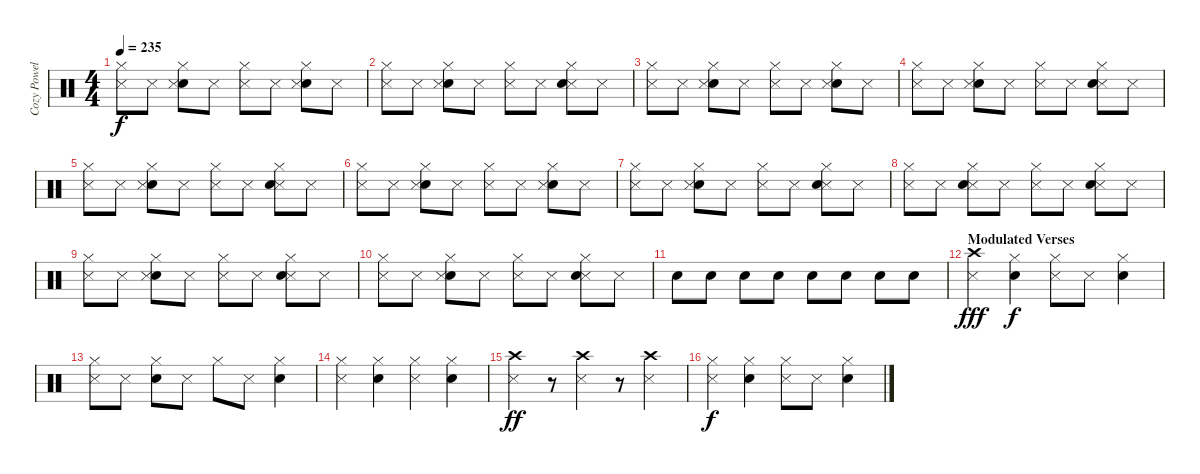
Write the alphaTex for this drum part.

\track ("Cozy Powell" "Cozy Powel") {instrument percussion}
\staff {score}
\articulation defaults
\ts (4 4)
\tempo 235
\clef neutral
\ks c
("Hi-Hat (closed)" "Metronome (hit)").8{dy f} "Metronome (hit)".8 ("Electric Snare (hit)" "Metronome (hit)" "Hi-Hat (closed)").8 "Metronome (hit)".8 ("Metronome (hit)" "Hi-Hat (closed)").8 "Metronome (hit)".8 ("Electric Snare (hit)" "Metronome (hit)" "Hi-Hat (closed)").8 "Metronome (hit)".8 |
("Metronome (hit)" "Hi-Hat (closed)").8 "Metronome (hit)".8 ("Electric Snare (hit)" "Hi-Hat (closed)" "Metronome (hit)").8 "Metronome (hit)".8 ("Metronome (hit)" "Hi-Hat (closed)").8 "Metronome (hit)".8 ("Metronome (hit)" "Electric Snare (hit)" "Hi-Hat (closed)").8 "Metronome (hit)".8 |
("Metronome (hit)" "Hi-Hat (closed)").8 "Metronome (hit)".8 ("Electric Snare (hit)" "Hi-Hat (closed)" "Metronome (hit)").8 "Metronome (hit)".8 ("Hi-Hat (closed)" "Metronome (hit)").8 "Metronome (hit)".8 ("Hi-Hat (closed)" "Electric Snare (hit)" "Metronome (hit)").8 "Metronome (hit)".8 |
("Metronome (hit)" "Hi-Hat (closed)").8 "Metronome (hit)".8 ("Electric Snare (hit)" "Metronome (hit)" "Hi-Hat (closed)").8 "Metronome (hit)".8 ("Hi-Hat (closed)" "Metronome (hit)").8 "Metronome (hit)".8 ("Metronome (hit)" "Electric Snare (hit)" "Hi-Hat (closed)").8 "Metronome (hit)".8 |
("Hi-Hat (closed)" "Metronome (hit)").8 "Metronome (hit)".8 ("Electric Snare (hit)" "Hi-Hat (closed)" "Metronome (hit)").8 "Metronome (hit)".8 ("Hi-Hat (closed)" "Metronome (hit)").8 "Metronome (hit)".8 ("Metronome (hit)" "Hi-Hat (closed)" "Electric Snare (hit)").8 "Metronome (hit)".8 |
("Metronome (hit)" "Hi-Hat (closed)").8 "Metronome (hit)".8 ("Hi-Hat (closed)" "Electric Snare (hit)" "Metronome (hit)").8 "Metronome (hit)".8 ("Metronome (hit)" "Hi-Hat (closed)").8 "Metronome (hit)".8 ("Hi-Hat (closed)" "Electric Snare (hit)" "Metronome (hit)").8 "Metronome (hit)".8 |
("Hi-Hat (closed)" "Metronome (hit)").8 "Metronome (hit)".8 ("Hi-Hat (closed)" "Electric Snare (hit)" "Metronome (hit)").8 "Metronome (hit)".8 ("Metronome (hit)" "Hi-Hat (closed)").8 "Metronome (hit)".8 ("Metronome (hit)" "Electric Snare (hit)" "Hi-Hat (closed)").8 "Metronome (hit)".8 |
("Hi-Hat (closed)" "Metronome (hit)").8 "Metronome (hit)".8 ("Metronome (hit)" "Hi-Hat (closed)" "Electric Snare (hit)").8 "Metronome (hit)".8 ("Hi-Hat (closed)" "Metronome (hit)").8 "Metronome (hit)".8 ("Hi-Hat (closed)" "Metronome (hit)" "Electric Snare (hit)").8 "Metronome (hit)".8 |
("Metronome (hit)" "Hi-Hat (closed)").8 "Metronome (hit)".8 ("Electric Snare (hit)" "Metronome (hit)" "Hi-Hat (closed)").8 "Metronome (hit)".8 ("Hi-Hat (closed)" "Metronome (hit)").8 "Metronome (hit)".8 ("Hi-Hat (closed)" "Metronome (hit)" "Electric Snare (hit)").8 "Metronome (hit)".8 |
("Metronome (hit)" "Hi-Hat (closed)").8 "Metronome (hit)".8 ("Electric Snare (hit)" "Metronome (hit)" "Hi-Hat (closed)").8 "Metronome (hit)".8 ("Metronome (hit)" "Hi-Hat (closed)").8 "Metronome (hit)".8 ("Hi-Hat (closed)" "Metronome (hit)" "Electric Snare (hit)").8 "Metronome (hit)".8 |
"Electric Snare (hit)".8 "Electric Snare (hit)".8 "Electric Snare (hit)".8 "Electric Snare (hit)".8 "Electric Snare (hit)".8 "Electric Snare (hit)".8 "Electric Snare (hit)".8 "Electric Snare (hit)".8 |
\section ("" "Modulated Verses")
("Crash high (hit)" "Metronome (hit)").4{dy fff} ("Electric Snare (hit)" "Hi-Hat (closed)").4{dy f} ("Metronome (hit)" "Hi-Hat (closed)").8 "Metronome (hit)".8 ("Electric Snare (hit)" "Hi-Hat (closed)").4 |
("Metronome (hit)" "Hi-Hat (closed)").8 "Metronome (hit)".8 ("Electric Snare (hit)" "Hi-Hat (closed)").8 "Metronome (hit)".8 "Hi-Hat (closed)".8 "Metronome (hit)".8 ("Electric Snare (hit)" "Hi-Hat (closed)").4 |
("Hi-Hat (closed)" "Metronome (hit)").4 ("Hi-Hat (closed)" "Electric Snare (hit)").4 ("Metronome (hit)" "Hi-Hat (closed)").4 ("Electric Snare (hit)" "Hi-Hat (closed)").4 |
("Metronome (hit)" "Crash high (hit)").4{dy ff} r.8 ("Metronome (hit)" "Crash high (hit)").4 r.8 ("Crash high (hit)" "Metronome (hit)").4 |
("Metronome (hit)" "Hi-Hat (closed)").4{dy f} ("Electric Snare (hit)" "Hi-Hat (closed)").4 ("Metronome (hit)" "Hi-Hat (closed)").8 "Metronome (hit)".8 ("Hi-Hat (closed)" "Electric Snare (hit)").4
